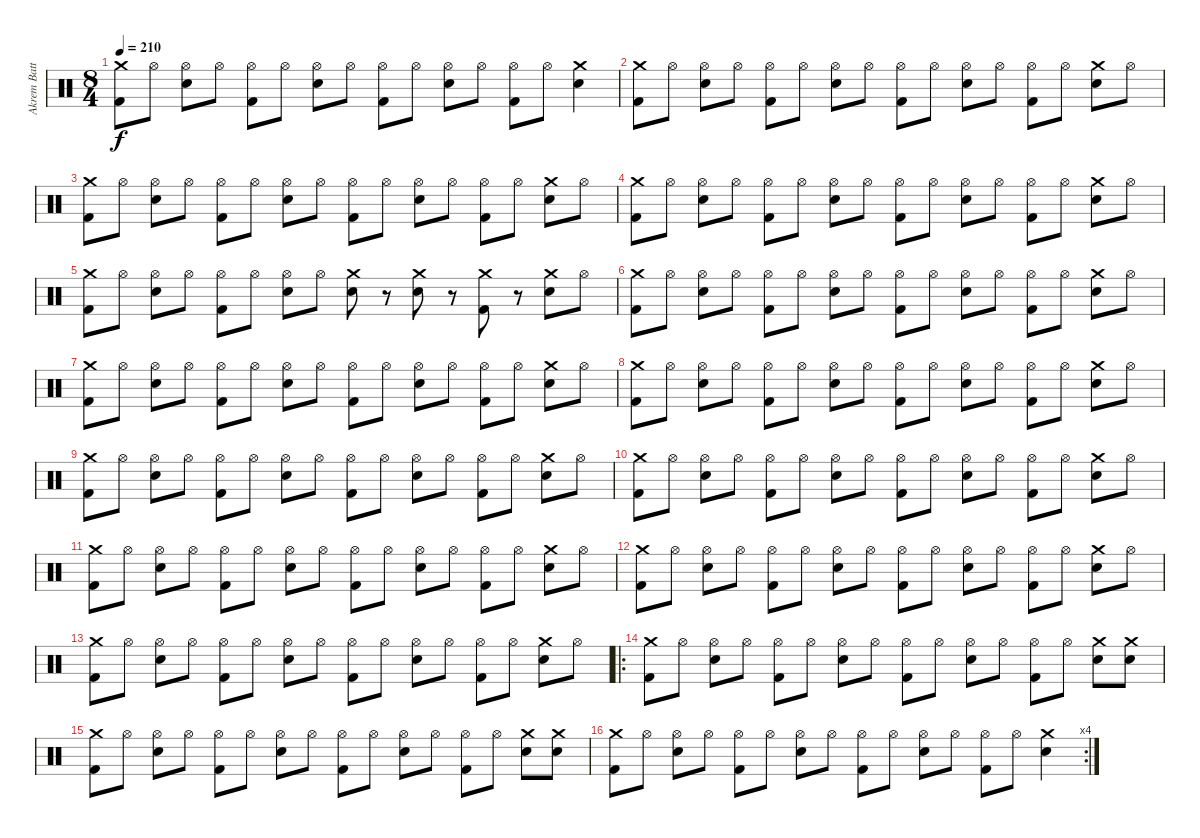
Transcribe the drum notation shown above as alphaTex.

\track ("Akrem Batterie" "Akrem Batt") {instrument percussion}
\staff {score}
\articulation defaults
\ts (8 4)
\tempo 210
\clef neutral
\ks c
("Crash medium (hit)" "Kick (hit) 2").8{dy f} "Hi-Hat (open)".8 ("Hi-Hat (open)" "Electric Snare (hit)").8 "Hi-Hat (open)".8 ("Hi-Hat (open)" "Kick (hit) 2").8 "Hi-Hat (open)".8 ("Hi-Hat (open)" "Electric Snare (hit)").8 "Hi-Hat (open)".8 ("Hi-Hat (open)" "Kick (hit) 2").8 "Hi-Hat (open)".8 ("Hi-Hat (open)" "Electric Snare (hit)").8 "Hi-Hat (open)".8 ("Hi-Hat (open)" "Kick (hit) 2").8 "Hi-Hat (open)".8 ("Crash medium (hit)" "Electric Snare (hit)").4 |
("Crash medium (hit)" "Kick (hit) 2").8 "Hi-Hat (open)".8 ("Hi-Hat (open)" "Electric Snare (hit)").8 "Hi-Hat (open)".8 ("Hi-Hat (open)" "Kick (hit) 2").8 "Hi-Hat (open)".8 ("Hi-Hat (open)" "Electric Snare (hit)").8 "Hi-Hat (open)".8 ("Hi-Hat (open)" "Kick (hit) 2").8 "Hi-Hat (open)".8 ("Hi-Hat (open)" "Electric Snare (hit)").8 "Hi-Hat (open)".8 ("Hi-Hat (open)" "Kick (hit) 2").8 "Hi-Hat (open)".8 ("Crash medium (hit)" "Electric Snare (hit)").8 "Hi-Hat (open)".8 |
("Crash medium (hit)" "Kick (hit) 2").8 "Hi-Hat (open)".8 ("Hi-Hat (open)" "Electric Snare (hit)").8 "Hi-Hat (open)".8 ("Hi-Hat (open)" "Kick (hit) 2").8 "Hi-Hat (open)".8 ("Hi-Hat (open)" "Electric Snare (hit)").8 "Hi-Hat (open)".8 ("Hi-Hat (open)" "Kick (hit) 2").8 "Hi-Hat (open)".8 ("Hi-Hat (open)" "Electric Snare (hit)").8 "Hi-Hat (open)".8 ("Hi-Hat (open)" "Kick (hit) 2").8 "Hi-Hat (open)".8 ("Crash medium (hit)" "Electric Snare (hit)").8 "Hi-Hat (open)".8 |
("Crash medium (hit)" "Kick (hit) 2").8 "Hi-Hat (open)".8 ("Hi-Hat (open)" "Electric Snare (hit)").8 "Hi-Hat (open)".8 ("Hi-Hat (open)" "Kick (hit) 2").8 "Hi-Hat (open)".8 ("Hi-Hat (open)" "Electric Snare (hit)").8 "Hi-Hat (open)".8 ("Hi-Hat (open)" "Kick (hit) 2").8 "Hi-Hat (open)".8 ("Hi-Hat (open)" "Electric Snare (hit)").8 "Hi-Hat (open)".8 ("Hi-Hat (open)" "Kick (hit) 2").8 "Hi-Hat (open)".8 ("Crash medium (hit)" "Electric Snare (hit)").8 "Hi-Hat (open)".8 |
("Crash medium (hit)" "Kick (hit) 2").8 "Hi-Hat (open)".8 ("Hi-Hat (open)" "Electric Snare (hit)").8 "Hi-Hat (open)".8 ("Hi-Hat (open)" "Kick (hit) 2").8 "Hi-Hat (open)".8 ("Hi-Hat (open)" "Electric Snare (hit)").8 "Hi-Hat (open)".8 ("Crash medium (hit)" "Electric Snare (hit)").8 r.8 ("Crash medium (hit)" "Electric Snare (hit)").8 r.8 ("Crash medium (hit)" "Kick (hit) 2").8 r.8 ("Crash medium (hit)" "Electric Snare (hit)").8 "Hi-Hat (open)".8 |
("Crash medium (hit)" "Kick (hit) 2").8 "Hi-Hat (open)".8 ("Hi-Hat (open)" "Electric Snare (hit)").8 "Hi-Hat (open)".8 ("Hi-Hat (open)" "Kick (hit) 2").8 "Hi-Hat (open)".8 ("Hi-Hat (open)" "Electric Snare (hit)").8 "Hi-Hat (open)".8 ("Hi-Hat (open)" "Kick (hit) 2").8 "Hi-Hat (open)".8 ("Hi-Hat (open)" "Electric Snare (hit)").8 "Hi-Hat (open)".8 ("Hi-Hat (open)" "Kick (hit) 2").8 "Hi-Hat (open)".8 ("Crash medium (hit)" "Electric Snare (hit)").8 "Hi-Hat (open)".8 |
("Crash medium (hit)" "Kick (hit) 2").8 "Hi-Hat (open)".8 ("Hi-Hat (open)" "Electric Snare (hit)").8 "Hi-Hat (open)".8 ("Hi-Hat (open)" "Kick (hit) 2").8 "Hi-Hat (open)".8 ("Hi-Hat (open)" "Electric Snare (hit)").8 "Hi-Hat (open)".8 ("Hi-Hat (open)" "Kick (hit) 2").8 "Hi-Hat (open)".8 ("Hi-Hat (open)" "Electric Snare (hit)").8 "Hi-Hat (open)".8 ("Hi-Hat (open)" "Kick (hit) 2").8 "Hi-Hat (open)".8 ("Crash medium (hit)" "Electric Snare (hit)").8 "Hi-Hat (open)".8 |
("Crash medium (hit)" "Kick (hit) 2").8 "Hi-Hat (open)".8 ("Hi-Hat (open)" "Electric Snare (hit)").8 "Hi-Hat (open)".8 ("Hi-Hat (open)" "Kick (hit) 2").8 "Hi-Hat (open)".8 ("Hi-Hat (open)" "Electric Snare (hit)").8 "Hi-Hat (open)".8 ("Hi-Hat (open)" "Kick (hit) 2").8 "Hi-Hat (open)".8 ("Hi-Hat (open)" "Electric Snare (hit)").8 "Hi-Hat (open)".8 ("Hi-Hat (open)" "Kick (hit) 2").8 "Hi-Hat (open)".8 ("Crash medium (hit)" "Electric Snare (hit)").8 "Hi-Hat (open)".8 |
("Crash medium (hit)" "Kick (hit) 2").8 "Hi-Hat (open)".8 ("Hi-Hat (open)" "Electric Snare (hit)").8 "Hi-Hat (open)".8 ("Hi-Hat (open)" "Kick (hit) 2").8 "Hi-Hat (open)".8 ("Hi-Hat (open)" "Electric Snare (hit)").8 "Hi-Hat (open)".8 ("Hi-Hat (open)" "Kick (hit) 2").8 "Hi-Hat (open)".8 ("Hi-Hat (open)" "Electric Snare (hit)").8 "Hi-Hat (open)".8 ("Hi-Hat (open)" "Kick (hit) 2").8 "Hi-Hat (open)".8 ("Crash medium (hit)" "Electric Snare (hit)").8 "Hi-Hat (open)".8 |
("Crash medium (hit)" "Kick (hit) 2").8 "Hi-Hat (open)".8 ("Hi-Hat (open)" "Electric Snare (hit)").8 "Hi-Hat (open)".8 ("Hi-Hat (open)" "Kick (hit) 2").8 "Hi-Hat (open)".8 ("Hi-Hat (open)" "Electric Snare (hit)").8 "Hi-Hat (open)".8 ("Hi-Hat (open)" "Kick (hit) 2").8 "Hi-Hat (open)".8 ("Hi-Hat (open)" "Electric Snare (hit)").8 "Hi-Hat (open)".8 ("Hi-Hat (open)" "Kick (hit) 2").8 "Hi-Hat (open)".8 ("Crash medium (hit)" "Electric Snare (hit)").8 "Hi-Hat (open)".8 |
("Crash medium (hit)" "Kick (hit) 2").8 "Hi-Hat (open)".8 ("Hi-Hat (open)" "Electric Snare (hit)").8 "Hi-Hat (open)".8 ("Hi-Hat (open)" "Kick (hit) 2").8 "Hi-Hat (open)".8 ("Hi-Hat (open)" "Electric Snare (hit)").8 "Hi-Hat (open)".8 ("Hi-Hat (open)" "Kick (hit) 2").8 "Hi-Hat (open)".8 ("Hi-Hat (open)" "Electric Snare (hit)").8 "Hi-Hat (open)".8 ("Hi-Hat (open)" "Kick (hit) 2").8 "Hi-Hat (open)".8 ("Crash medium (hit)" "Electric Snare (hit)").8 "Hi-Hat (open)".8 |
("Crash medium (hit)" "Kick (hit) 2").8 "Hi-Hat (open)".8 ("Hi-Hat (open)" "Electric Snare (hit)").8 "Hi-Hat (open)".8 ("Hi-Hat (open)" "Kick (hit) 2").8 "Hi-Hat (open)".8 ("Hi-Hat (open)" "Electric Snare (hit)").8 "Hi-Hat (open)".8 ("Hi-Hat (open)" "Kick (hit) 2").8 "Hi-Hat (open)".8 ("Hi-Hat (open)" "Electric Snare (hit)").8 "Hi-Hat (open)".8 ("Hi-Hat (open)" "Kick (hit) 2").8 "Hi-Hat (open)".8 ("Crash medium (hit)" "Electric Snare (hit)").8 "Hi-Hat (open)".8 |
("Crash medium (hit)" "Kick (hit) 2").8 "Hi-Hat (open)".8 ("Hi-Hat (open)" "Electric Snare (hit)").8 "Hi-Hat (open)".8 ("Hi-Hat (open)" "Kick (hit) 2").8 "Hi-Hat (open)".8 ("Hi-Hat (open)" "Electric Snare (hit)").8 "Hi-Hat (open)".8 ("Hi-Hat (open)" "Kick (hit) 2").8 "Hi-Hat (open)".8 ("Hi-Hat (open)" "Electric Snare (hit)").8 "Hi-Hat (open)".8 ("Hi-Hat (open)" "Kick (hit) 2").8 "Hi-Hat (open)".8 ("Crash medium (hit)" "Electric Snare (hit)").8 "Hi-Hat (open)".8 |
\ro
("Crash medium (hit)" "Kick (hit) 2").8 "Hi-Hat (open)".8 ("Hi-Hat (open)" "Electric Snare (hit)").8 "Hi-Hat (open)".8 ("Hi-Hat (open)" "Kick (hit) 2").8 "Hi-Hat (open)".8 ("Hi-Hat (open)" "Electric Snare (hit)").8 "Hi-Hat (open)".8 ("Hi-Hat (open)" "Kick (hit) 2").8 "Hi-Hat (open)".8 ("Hi-Hat (open)" "Electric Snare (hit)").8 "Hi-Hat (open)".8 ("Hi-Hat (open)" "Kick (hit) 2").8 "Hi-Hat (open)".8 ("Crash medium (hit)" "Electric Snare (hit)").8 ("Crash medium (hit)" "Electric Snare (hit)").8 |
("Crash medium (hit)" "Kick (hit) 2").8 "Hi-Hat (open)".8 ("Hi-Hat (open)" "Electric Snare (hit)").8 "Hi-Hat (open)".8 ("Hi-Hat (open)" "Kick (hit) 2").8 "Hi-Hat (open)".8 ("Hi-Hat (open)" "Electric Snare (hit)").8 "Hi-Hat (open)".8 ("Hi-Hat (open)" "Kick (hit) 2").8 "Hi-Hat (open)".8 ("Hi-Hat (open)" "Electric Snare (hit)").8 "Hi-Hat (open)".8 ("Hi-Hat (open)" "Kick (hit) 2").8 "Hi-Hat (open)".8 ("Crash medium (hit)" "Electric Snare (hit)").8 ("Crash medium (hit)" "Electric Snare (hit)").8 |
\rc 4
("Crash medium (hit)" "Kick (hit) 2").8 "Hi-Hat (open)".8 ("Hi-Hat (open)" "Electric Snare (hit)").8 "Hi-Hat (open)".8 ("Hi-Hat (open)" "Kick (hit) 2").8 "Hi-Hat (open)".8 ("Hi-Hat (open)" "Electric Snare (hit)").8 "Hi-Hat (open)".8 ("Hi-Hat (open)" "Kick (hit) 2").8 "Hi-Hat (open)".8 ("Hi-Hat (open)" "Electric Snare (hit)").8 "Hi-Hat (open)".8 ("Hi-Hat (open)" "Kick (hit) 2").8 "Hi-Hat (open)".8 ("Crash medium (hit)" "Electric Snare (hit)").4
